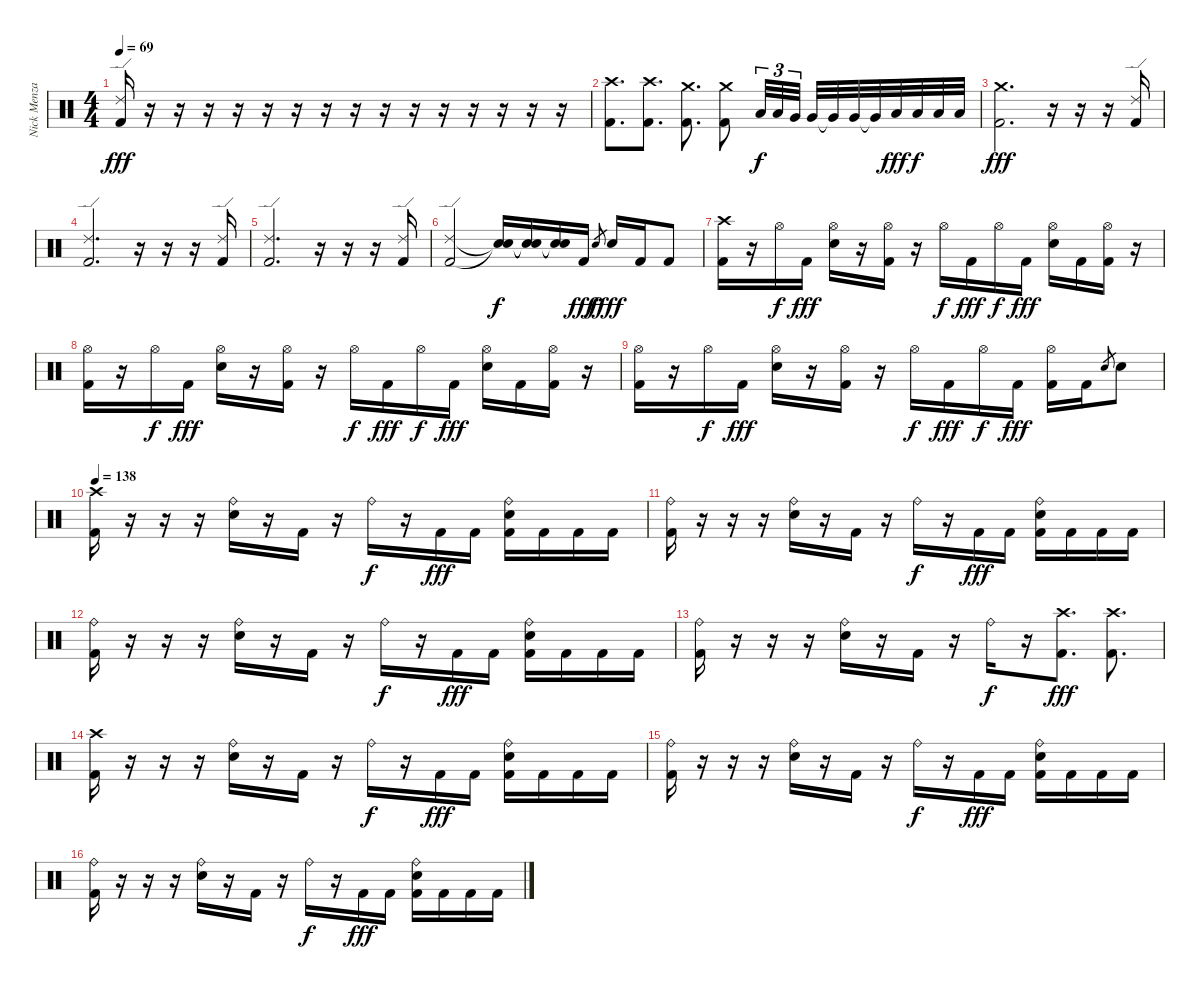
\track ("Nick Menza" "Nick Menza") {instrument percussion}
\staff {score}
\articulation defaults
\ts (4 4)
\tempo 69
\clef neutral
\ks c
("Kick (hit) 2" "Ride (edge) 2").16{dy fff} r.16 r.16 r.16 r.16 r.16 r.16 r.16 r.16 r.16 r.16 r.16 r.16 r.16 r.16 r.16 |
("Kick (hit) 2" "Crash high (hit)").8{d} ("Kick (hit) 2" "Crash high (hit)").8{d} ("Kick (hit) 2" "Crash medium (hit)").8{d} ("Kick (hit) 2" "Crash medium (hit)").8 "Low Tom (hit)".32{tu (3 2) dy f} "Low Tom (hit)".32{tu (3 2)} "Very Low Tom (hit)".32{tu (3 2)} "Very Low Tom (hit)".32 "Very Low Tom (hit)"{t}.32 "Very Low Tom (hit)".32 "Very Low Tom (hit)"{t}.32 "Low Floor Tom (hit)".32{dy fff} "Low Floor Tom (hit)".32{dy f} "Low Floor Tom (hit)".32 "Low Floor Tom (hit)".32 |
("Kick (hit) 2" "Crash medium (hit)").2{d dy fff} r.16 r.16 r.16 ("Kick (hit) 2" "Ride (edge) 2").16 |
("Kick (hit) 2" "Ride (edge) 2").2{d} r.16 r.16 r.16 ("Kick (hit) 2" "Ride (edge) 2").16 |
("Kick (hit) 2" "Ride (edge) 2").2{d} r.16 r.16 r.16 ("Kick (hit) 2" "Ride (edge) 2").16 |
("Kick (hit) 2" "Ride (edge) 2").2 ("Snare (hit)"{t} "Snare (hit)"{t}).16{dy f} ("Snare (hit)"{t} "Snare (hit)"{t}).16 ("Snare (hit)"{t} "Snare (hit)"{t}).16 "Kick (hit) 2".16{dy fff} "Electric Snare (hit)".8{gr dy f} "Electric Snare (hit)".16{dy fff} "Kick (hit) 2".16 "Kick (hit) 2".8 |
("Kick (hit) 2" "Crash high (hit)").16 r.16 "Hi-Hat (open)".16{dy f} "Kick (hit) 2".16{dy fff} ("Electric Snare (hit)" "Hi-Hat (open)").16 r.16 ("Kick (hit) 2" "Hi-Hat (open)").16 r.16 "Hi-Hat (open)".16{dy f} "Kick (hit) 2".16{dy fff} "Hi-Hat (open)".16{dy f} "Kick (hit) 2".16{dy fff} ("Electric Snare (hit)" "Hi-Hat (open)").16 "Kick (hit) 2".16 ("Kick (hit) 2" "Hi-Hat (open)").16 r.16 |
("Kick (hit) 2" "Hi-Hat (open)").16 r.16 "Hi-Hat (open)".16{dy f} "Kick (hit) 2".16{dy fff} ("Electric Snare (hit)" "Hi-Hat (open)").16 r.16 ("Kick (hit) 2" "Hi-Hat (open)").16 r.16 "Hi-Hat (open)".16{dy f} "Kick (hit) 2".16{dy fff} "Hi-Hat (open)".16{dy f} "Kick (hit) 2".16{dy fff} ("Electric Snare (hit)" "Hi-Hat (open)").16 "Kick (hit) 2".16 ("Kick (hit) 2" "Hi-Hat (open)").16 r.16 |
("Kick (hit) 2" "Hi-Hat (open)").16 r.16 "Hi-Hat (open)".16{dy f} "Kick (hit) 2".16{dy fff} ("Electric Snare (hit)" "Hi-Hat (open)").16 r.16 ("Kick (hit) 2" "Hi-Hat (open)").16 r.16 "Hi-Hat (open)".16{dy f} "Kick (hit) 2".16{dy fff} "Hi-Hat (open)".16{dy f} "Kick (hit) 2".16{dy fff} ("Kick (hit) 2" "Hi-Hat (open)").16 "Kick (hit) 2".16 "Electric Snare (hit)".8{gr} "Electric Snare (hit)".8 |
\tempo 138
("Kick (hit) 2" "Crash high (hit)").16 r.16 r.16 r.16 ("Electric Snare (hit)" "Ride (bell)").16 r.16 "Kick (hit) 2".16 r.16 "Ride (bell)".16{dy f} r.16 "Kick (hit) 2".16{dy fff} "Kick (hit) 2".16 ("Kick (hit) 2" "Electric Snare (hit)" "Ride (bell)").16 "Kick (hit) 2".16 "Kick (hit) 2".16 "Kick (hit) 2".16 |
("Kick (hit) 2" "Ride (bell)").16 r.16 r.16 r.16 ("Electric Snare (hit)" "Ride (bell)").16 r.16 "Kick (hit) 2".16 r.16 "Ride (bell)".16{dy f} r.16 "Kick (hit) 2".16{dy fff} "Kick (hit) 2".16 ("Kick (hit) 2" "Electric Snare (hit)" "Ride (bell)").16 "Kick (hit) 2".16 "Kick (hit) 2".16 "Kick (hit) 2".16 |
("Kick (hit) 2" "Ride (bell)").16 r.16 r.16 r.16 ("Electric Snare (hit)" "Ride (bell)").16 r.16 "Kick (hit) 2".16 r.16 "Ride (bell)".16{dy f} r.16 "Kick (hit) 2".16{dy fff} "Kick (hit) 2".16 ("Kick (hit) 2" "Electric Snare (hit)" "Ride (bell)").16 "Kick (hit) 2".16 "Kick (hit) 2".16 "Kick (hit) 2".16 |
("Kick (hit) 2" "Ride (bell)").16 r.16 r.16 r.16 ("Electric Snare (hit)" "Ride (bell)").16 r.16 "Kick (hit) 2".16 r.16 "Ride (bell)".16{dy f} r.16 ("Kick (hit) 2" "Crash high (hit)").8{d dy fff} ("Kick (hit) 2" "Crash high (hit)").8{d} |
("Kick (hit) 2" "Crash high (hit)").16 r.16 r.16 r.16 ("Electric Snare (hit)" "Ride (bell)").16 r.16 "Kick (hit) 2".16 r.16 "Ride (bell)".16{dy f} r.16 "Kick (hit) 2".16{dy fff} "Kick (hit) 2".16 ("Kick (hit) 2" "Electric Snare (hit)" "Ride (bell)").16 "Kick (hit) 2".16 "Kick (hit) 2".16 "Kick (hit) 2".16 |
("Kick (hit) 2" "Ride (bell)").16 r.16 r.16 r.16 ("Electric Snare (hit)" "Ride (bell)").16 r.16 "Kick (hit) 2".16 r.16 "Ride (bell)".16{dy f} r.16 "Kick (hit) 2".16{dy fff} "Kick (hit) 2".16 ("Kick (hit) 2" "Electric Snare (hit)" "Ride (bell)").16 "Kick (hit) 2".16 "Kick (hit) 2".16 "Kick (hit) 2".16 |
("Kick (hit) 2" "Ride (bell)").16 r.16 r.16 r.16 ("Electric Snare (hit)" "Ride (bell)").16 r.16 "Kick (hit) 2".16 r.16 "Ride (bell)".16{dy f} r.16 "Kick (hit) 2".16{dy fff} "Kick (hit) 2".16 ("Kick (hit) 2" "Electric Snare (hit)" "Ride (bell)").16 "Kick (hit) 2".16 "Kick (hit) 2".16 "Kick (hit) 2".16
